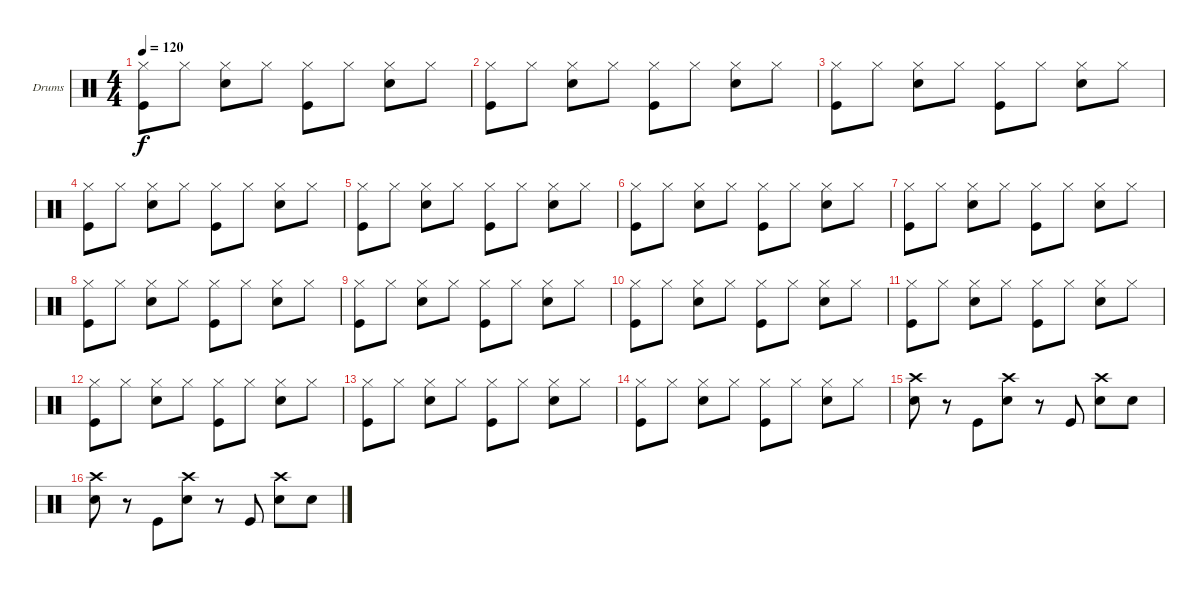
\bracketExtendMode groupsimilarinstruments
\firstSystemTrackNameOrientation horizontal
\otherSystemsTrackNameOrientation horizontal
\track ("Drumkit" "Drums") {instrument percussion}
\staff {score}
\articulation defaults
\ts (4 4)
\tempo 120
\clef neutral
\ks c
("Hi-Hat (closed)" "Kick (hit)").8{dy f} "Hi-Hat (closed)".8 ("Hi-Hat (closed)" "Snare (hit) 2").8 "Hi-Hat (closed)".8 ("Hi-Hat (closed)" "Kick (hit)").8 "Hi-Hat (closed)".8 ("Hi-Hat (closed)" "Snare (hit) 2").8 "Hi-Hat (closed)".8 |
("Hi-Hat (closed)" "Kick (hit)").8 "Hi-Hat (closed)".8 ("Hi-Hat (closed)" "Snare (hit) 2").8 "Hi-Hat (closed)".8 ("Hi-Hat (closed)" "Kick (hit)").8 "Hi-Hat (closed)".8 ("Hi-Hat (closed)" "Snare (hit) 2").8 "Hi-Hat (closed)".8 |
("Hi-Hat (closed)" "Kick (hit)").8 "Hi-Hat (closed)".8 ("Hi-Hat (closed)" "Snare (hit) 2").8 "Hi-Hat (closed)".8 ("Hi-Hat (closed)" "Kick (hit)").8 "Hi-Hat (closed)".8 ("Hi-Hat (closed)" "Snare (hit) 2").8 "Hi-Hat (closed)".8 |
("Hi-Hat (closed)" "Kick (hit)").8 "Hi-Hat (closed)".8 ("Hi-Hat (closed)" "Snare (hit) 2").8 "Hi-Hat (closed)".8 ("Hi-Hat (closed)" "Kick (hit)").8 "Hi-Hat (closed)".8 ("Hi-Hat (closed)" "Snare (hit) 2").8 "Hi-Hat (closed)".8 |
("Hi-Hat (closed)" "Kick (hit)").8 "Hi-Hat (closed)".8 ("Hi-Hat (closed)" "Snare (hit) 2").8 "Hi-Hat (closed)".8 ("Hi-Hat (closed)" "Kick (hit)").8 "Hi-Hat (closed)".8 ("Hi-Hat (closed)" "Snare (hit) 2").8 "Hi-Hat (closed)".8 |
("Hi-Hat (closed)" "Kick (hit)").8 "Hi-Hat (closed)".8 ("Hi-Hat (closed)" "Snare (hit) 2").8 "Hi-Hat (closed)".8 ("Hi-Hat (closed)" "Kick (hit)").8 "Hi-Hat (closed)".8 ("Hi-Hat (closed)" "Snare (hit) 2").8 "Hi-Hat (closed)".8 |
("Hi-Hat (closed)" "Kick (hit)").8 "Hi-Hat (closed)".8 ("Hi-Hat (closed)" "Snare (hit) 2").8 "Hi-Hat (closed)".8 ("Hi-Hat (closed)" "Kick (hit)").8 "Hi-Hat (closed)".8 ("Hi-Hat (closed)" "Snare (hit) 2").8 "Hi-Hat (closed)".8 |
("Hi-Hat (closed)" "Kick (hit)").8 "Hi-Hat (closed)".8 ("Hi-Hat (closed)" "Snare (hit) 2").8 "Hi-Hat (closed)".8 ("Hi-Hat (closed)" "Kick (hit)").8 "Hi-Hat (closed)".8 ("Hi-Hat (closed)" "Snare (hit) 2").8 "Hi-Hat (closed)".8 |
("Hi-Hat (closed)" "Kick (hit)").8 "Hi-Hat (closed)".8 ("Hi-Hat (closed)" "Snare (hit) 2").8 "Hi-Hat (closed)".8 ("Hi-Hat (closed)" "Kick (hit)").8 "Hi-Hat (closed)".8 ("Hi-Hat (closed)" "Snare (hit) 2").8 "Hi-Hat (closed)".8 |
("Hi-Hat (closed)" "Kick (hit)").8 "Hi-Hat (closed)".8 ("Hi-Hat (closed)" "Snare (hit) 2").8 "Hi-Hat (closed)".8 ("Hi-Hat (closed)" "Kick (hit)").8 "Hi-Hat (closed)".8 ("Hi-Hat (closed)" "Snare (hit) 2").8 "Hi-Hat (closed)".8 |
("Hi-Hat (closed)" "Kick (hit)").8 "Hi-Hat (closed)".8 ("Hi-Hat (closed)" "Snare (hit) 2").8 "Hi-Hat (closed)".8 ("Hi-Hat (closed)" "Kick (hit)").8 "Hi-Hat (closed)".8 ("Hi-Hat (closed)" "Snare (hit) 2").8 "Hi-Hat (closed)".8 |
("Hi-Hat (closed)" "Kick (hit)").8 "Hi-Hat (closed)".8 ("Hi-Hat (closed)" "Snare (hit) 2").8 "Hi-Hat (closed)".8 ("Hi-Hat (closed)" "Kick (hit)").8 "Hi-Hat (closed)".8 ("Hi-Hat (closed)" "Snare (hit) 2").8 "Hi-Hat (closed)".8 |
("Hi-Hat (closed)" "Kick (hit)").8 "Hi-Hat (closed)".8 ("Hi-Hat (closed)" "Snare (hit) 2").8 "Hi-Hat (closed)".8 ("Hi-Hat (closed)" "Kick (hit)").8 "Hi-Hat (closed)".8 ("Hi-Hat (closed)" "Snare (hit) 2").8 "Hi-Hat (closed)".8 |
("Hi-Hat (closed)" "Kick (hit)").8 "Hi-Hat (closed)".8 ("Hi-Hat (closed)" "Snare (hit) 2").8 "Hi-Hat (closed)".8 ("Hi-Hat (closed)" "Kick (hit)").8 "Hi-Hat (closed)".8 ("Hi-Hat (closed)" "Snare (hit) 2").8 "Hi-Hat (closed)".8 |
("Crash high (hit)" "Snare (hit) 2").8 r.8 "Kick (hit)".8 ("Crash high (hit)" "Snare (hit) 2").8 r.8 "Kick (hit)".8 ("Crash high (hit)" "Snare (hit) 2").8 "Snare (hit) 2".8 |
("Crash high (hit)" "Snare (hit) 2").8 r.8 "Kick (hit)".8 ("Crash high (hit)" "Snare (hit) 2").8 r.8 "Kick (hit)".8 ("Crash high (hit)" "Snare (hit) 2").8 "Snare (hit) 2".8
